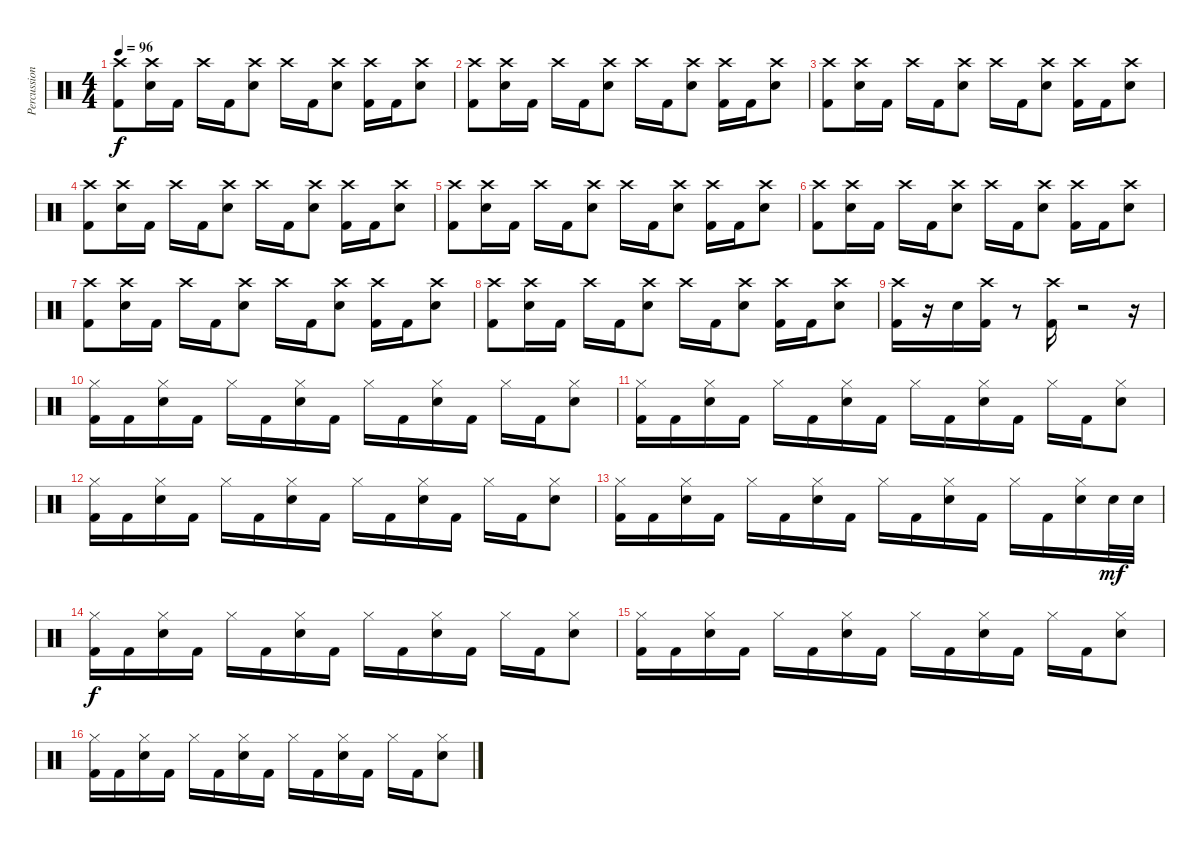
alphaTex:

\track ("Percussion" "Percussion") {instrument percussion}
\staff {score}
\articulation defaults
\ts (4 4)
\tempo 96
\clef neutral
\ks c
("Crash high (hit)" "Kick (hit) 2").8{dy f} ("Crash high (hit)" "Snare (hit) 2").16 "Kick (hit) 2".16 "Crash high (hit)".16 "Kick (hit) 2".16 ("Crash high (hit)" "Snare (hit) 2").8 "Crash high (hit)".16 "Kick (hit) 2".16 ("Crash high (hit)" "Snare (hit) 2").8 ("Crash high (hit)" "Kick (hit) 2").16 "Kick (hit) 2".16 ("Crash high (hit)" "Snare (hit) 2").8 |
("Crash high (hit)" "Kick (hit) 2").8 ("Crash high (hit)" "Snare (hit) 2").16 "Kick (hit) 2".16 "Crash high (hit)".16 "Kick (hit) 2".16 ("Crash high (hit)" "Snare (hit) 2").8 "Crash high (hit)".16 "Kick (hit) 2".16 ("Crash high (hit)" "Snare (hit) 2").8 ("Crash high (hit)" "Kick (hit) 2").16 "Kick (hit) 2".16 ("Crash high (hit)" "Snare (hit) 2").8 |
("Crash high (hit)" "Kick (hit) 2").8 ("Crash high (hit)" "Snare (hit) 2").16 "Kick (hit) 2".16 "Crash high (hit)".16 "Kick (hit) 2".16 ("Crash high (hit)" "Snare (hit) 2").8 "Crash high (hit)".16 "Kick (hit) 2".16 ("Crash high (hit)" "Snare (hit) 2").8 ("Crash high (hit)" "Kick (hit) 2").16 "Kick (hit) 2".16 ("Crash high (hit)" "Snare (hit) 2").8 |
("Crash high (hit)" "Kick (hit) 2").8 ("Crash high (hit)" "Snare (hit) 2").16 "Kick (hit) 2".16 "Crash high (hit)".16 "Kick (hit) 2".16 ("Crash high (hit)" "Snare (hit) 2").8 "Crash high (hit)".16 "Kick (hit) 2".16 ("Crash high (hit)" "Snare (hit) 2").8 ("Crash high (hit)" "Kick (hit) 2").16 "Kick (hit) 2".16 ("Crash high (hit)" "Snare (hit) 2").8 |
("Crash high (hit)" "Kick (hit) 2").8 ("Crash high (hit)" "Snare (hit) 2").16 "Kick (hit) 2".16 "Crash high (hit)".16 "Kick (hit) 2".16 ("Crash high (hit)" "Snare (hit) 2").8 "Crash high (hit)".16 "Kick (hit) 2".16 ("Crash high (hit)" "Snare (hit) 2").8 ("Crash high (hit)" "Kick (hit) 2").16 "Kick (hit) 2".16 ("Crash high (hit)" "Snare (hit) 2").8 |
("Crash high (hit)" "Kick (hit) 2").8 ("Crash high (hit)" "Snare (hit) 2").16 "Kick (hit) 2".16 "Crash high (hit)".16 "Kick (hit) 2".16 ("Crash high (hit)" "Snare (hit) 2").8 "Crash high (hit)".16 "Kick (hit) 2".16 ("Crash high (hit)" "Snare (hit) 2").8 ("Crash high (hit)" "Kick (hit) 2").16 "Kick (hit) 2".16 ("Crash high (hit)" "Snare (hit) 2").8 |
("Crash high (hit)" "Kick (hit) 2").8 ("Crash high (hit)" "Snare (hit) 2").16 "Kick (hit) 2".16 "Crash high (hit)".16 "Kick (hit) 2".16 ("Crash high (hit)" "Snare (hit) 2").8 "Crash high (hit)".16 "Kick (hit) 2".16 ("Crash high (hit)" "Snare (hit) 2").8 ("Crash high (hit)" "Kick (hit) 2").16 "Kick (hit) 2".16 ("Crash high (hit)" "Snare (hit) 2").8 |
("Crash high (hit)" "Kick (hit) 2").8 ("Crash high (hit)" "Snare (hit) 2").16 "Kick (hit) 2".16 "Crash high (hit)".16 "Kick (hit) 2".16 ("Crash high (hit)" "Snare (hit) 2").8 "Crash high (hit)".16 "Kick (hit) 2".16 ("Crash high (hit)" "Snare (hit) 2").8 ("Crash high (hit)" "Kick (hit) 2").16 "Kick (hit) 2".16 ("Crash high (hit)" "Snare (hit) 2").8 |
("Crash high (hit)" "Kick (hit) 2").16 r.16 "Snare (hit) 2".16 ("Crash high (hit)" "Kick (hit) 2").16 r.8 ("Crash high (hit)" "Kick (hit) 2").16 r.2 r.16 |
("Hi-Hat (closed)" "Kick (hit) 2").16 "Kick (hit) 2".16 ("Hi-Hat (closed)" "Snare (hit) 2").16 "Kick (hit) 2".16 "Hi-Hat (closed)".16 "Kick (hit) 2".16 ("Hi-Hat (closed)" "Snare (hit) 2").16 "Kick (hit) 2".16 "Hi-Hat (closed)".16 "Kick (hit) 2".16 ("Hi-Hat (closed)" "Snare (hit) 2").16 "Kick (hit) 2".16 "Hi-Hat (closed)".16 "Kick (hit) 2".16 ("Hi-Hat (closed)" "Snare (hit) 2").8 |
("Hi-Hat (closed)" "Kick (hit) 2").16 "Kick (hit) 2".16 ("Hi-Hat (closed)" "Snare (hit) 2").16 "Kick (hit) 2".16 "Hi-Hat (closed)".16 "Kick (hit) 2".16 ("Hi-Hat (closed)" "Snare (hit) 2").16 "Kick (hit) 2".16 "Hi-Hat (closed)".16 "Kick (hit) 2".16 ("Hi-Hat (closed)" "Snare (hit) 2").16 "Kick (hit) 2".16 "Hi-Hat (closed)".16 "Kick (hit) 2".16 ("Hi-Hat (closed)" "Snare (hit) 2").8 |
("Hi-Hat (closed)" "Kick (hit) 2").16 "Kick (hit) 2".16 ("Hi-Hat (closed)" "Snare (hit) 2").16 "Kick (hit) 2".16 "Hi-Hat (closed)".16 "Kick (hit) 2".16 ("Hi-Hat (closed)" "Snare (hit) 2").16 "Kick (hit) 2".16 "Hi-Hat (closed)".16 "Kick (hit) 2".16 ("Hi-Hat (closed)" "Snare (hit) 2").16 "Kick (hit) 2".16 "Hi-Hat (closed)".16 "Kick (hit) 2".16 ("Hi-Hat (closed)" "Snare (hit) 2").8 |
("Hi-Hat (closed)" "Kick (hit) 2").16 "Kick (hit) 2".16 ("Hi-Hat (closed)" "Snare (hit) 2").16 "Kick (hit) 2".16 "Hi-Hat (closed)".16 "Kick (hit) 2".16 ("Hi-Hat (closed)" "Snare (hit) 2").16 "Kick (hit) 2".16 "Hi-Hat (closed)".16 "Kick (hit) 2".16 ("Hi-Hat (closed)" "Snare (hit) 2").16 "Kick (hit) 2".16 "Hi-Hat (closed)".16 "Kick (hit) 2".16 ("Hi-Hat (closed)" "Snare (hit) 2").16 "Snare (hit) 2".32{dy mf} "Snare (hit) 2".32 |
("Hi-Hat (closed)" "Kick (hit) 2").16{dy f} "Kick (hit) 2".16 ("Hi-Hat (closed)" "Snare (hit) 2").16 "Kick (hit) 2".16 "Hi-Hat (closed)".16 "Kick (hit) 2".16 ("Hi-Hat (closed)" "Snare (hit) 2").16 "Kick (hit) 2".16 "Hi-Hat (closed)".16 "Kick (hit) 2".16 ("Hi-Hat (closed)" "Snare (hit) 2").16 "Kick (hit) 2".16 "Hi-Hat (closed)".16 "Kick (hit) 2".16 ("Hi-Hat (closed)" "Snare (hit) 2").8 |
("Hi-Hat (closed)" "Kick (hit) 2").16 "Kick (hit) 2".16 ("Hi-Hat (closed)" "Snare (hit) 2").16 "Kick (hit) 2".16 "Hi-Hat (closed)".16 "Kick (hit) 2".16 ("Hi-Hat (closed)" "Snare (hit) 2").16 "Kick (hit) 2".16 "Hi-Hat (closed)".16 "Kick (hit) 2".16 ("Hi-Hat (closed)" "Snare (hit) 2").16 "Kick (hit) 2".16 "Hi-Hat (closed)".16 "Kick (hit) 2".16 ("Hi-Hat (closed)" "Snare (hit) 2").8 |
("Hi-Hat (closed)" "Kick (hit) 2").16 "Kick (hit) 2".16 ("Hi-Hat (closed)" "Snare (hit) 2").16 "Kick (hit) 2".16 "Hi-Hat (closed)".16 "Kick (hit) 2".16 ("Hi-Hat (closed)" "Snare (hit) 2").16 "Kick (hit) 2".16 "Hi-Hat (closed)".16 "Kick (hit) 2".16 ("Hi-Hat (closed)" "Snare (hit) 2").16 "Kick (hit) 2".16 "Hi-Hat (closed)".16 "Kick (hit) 2".16 ("Hi-Hat (closed)" "Snare (hit) 2").8
